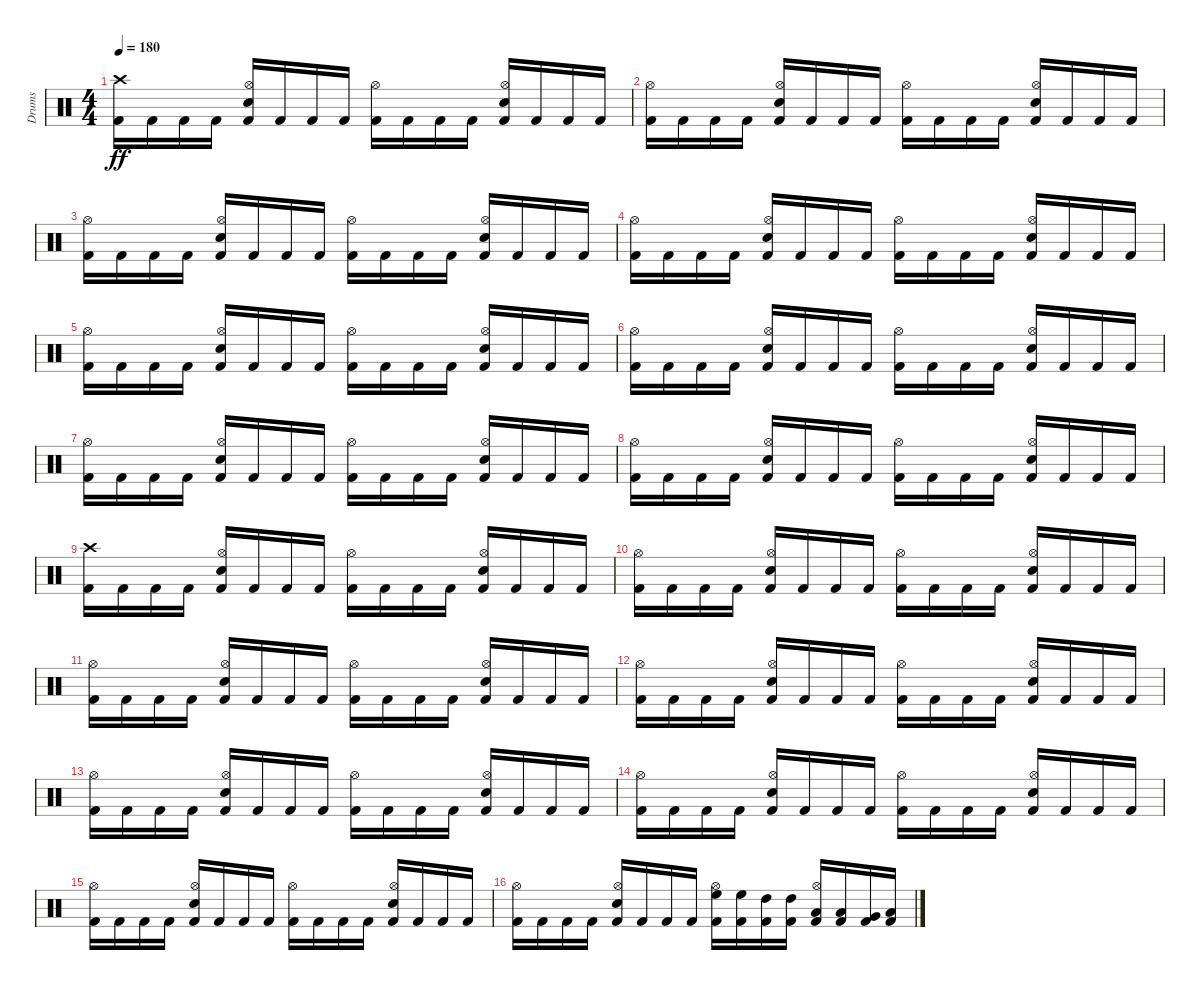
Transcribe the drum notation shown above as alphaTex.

\track ("Drums" "Drums") {instrument percussion}
\staff {score}
\articulation defaults
\ts (4 4)
\tempo 180
\clef neutral
\ks c
("Crash high (hit)" "Kick (hit) 2").16{dy ff} "Kick (hit) 2".16 "Kick (hit) 2".16 "Kick (hit) 2".16 ("Hi-Hat (open)" "Snare (hit) 2" "Kick (hit) 2").16 "Kick (hit) 2".16 "Kick (hit) 2".16 "Kick (hit) 2".16 ("Hi-Hat (open)" "Kick (hit) 2").16 "Kick (hit) 2".16 "Kick (hit) 2".16 "Kick (hit) 2".16 ("Hi-Hat (open)" "Snare (hit) 2" "Kick (hit) 2").16 "Kick (hit) 2".16 "Kick (hit) 2".16 "Kick (hit) 2".16 |
("Hi-Hat (open)" "Kick (hit) 2").16 "Kick (hit) 2".16 "Kick (hit) 2".16 "Kick (hit) 2".16 ("Hi-Hat (open)" "Snare (hit) 2" "Kick (hit) 2").16 "Kick (hit) 2".16 "Kick (hit) 2".16 "Kick (hit) 2".16 ("Hi-Hat (open)" "Kick (hit) 2").16 "Kick (hit) 2".16 "Kick (hit) 2".16 "Kick (hit) 2".16 ("Hi-Hat (open)" "Snare (hit) 2" "Kick (hit) 2").16 "Kick (hit) 2".16 "Kick (hit) 2".16 "Kick (hit) 2".16 |
("Hi-Hat (open)" "Kick (hit) 2").16 "Kick (hit) 2".16 "Kick (hit) 2".16 "Kick (hit) 2".16 ("Hi-Hat (open)" "Snare (hit) 2" "Kick (hit) 2").16 "Kick (hit) 2".16 "Kick (hit) 2".16 "Kick (hit) 2".16 ("Hi-Hat (open)" "Kick (hit) 2").16 "Kick (hit) 2".16 "Kick (hit) 2".16 "Kick (hit) 2".16 ("Hi-Hat (open)" "Snare (hit) 2" "Kick (hit) 2").16 "Kick (hit) 2".16 "Kick (hit) 2".16 "Kick (hit) 2".16 |
("Hi-Hat (open)" "Kick (hit) 2").16 "Kick (hit) 2".16 "Kick (hit) 2".16 "Kick (hit) 2".16 ("Hi-Hat (open)" "Snare (hit) 2" "Kick (hit) 2").16 "Kick (hit) 2".16 "Kick (hit) 2".16 "Kick (hit) 2".16 ("Hi-Hat (open)" "Kick (hit) 2").16 "Kick (hit) 2".16 "Kick (hit) 2".16 "Kick (hit) 2".16 ("Hi-Hat (open)" "Snare (hit) 2" "Kick (hit) 2").16 "Kick (hit) 2".16 "Kick (hit) 2".16 "Kick (hit) 2".16 |
("Hi-Hat (open)" "Kick (hit) 2").16 "Kick (hit) 2".16 "Kick (hit) 2".16 "Kick (hit) 2".16 ("Hi-Hat (open)" "Snare (hit) 2" "Kick (hit) 2").16 "Kick (hit) 2".16 "Kick (hit) 2".16 "Kick (hit) 2".16 ("Hi-Hat (open)" "Kick (hit) 2").16 "Kick (hit) 2".16 "Kick (hit) 2".16 "Kick (hit) 2".16 ("Hi-Hat (open)" "Snare (hit) 2" "Kick (hit) 2").16 "Kick (hit) 2".16 "Kick (hit) 2".16 "Kick (hit) 2".16 |
("Hi-Hat (open)" "Kick (hit) 2").16 "Kick (hit) 2".16 "Kick (hit) 2".16 "Kick (hit) 2".16 ("Hi-Hat (open)" "Snare (hit) 2" "Kick (hit) 2").16 "Kick (hit) 2".16 "Kick (hit) 2".16 "Kick (hit) 2".16 ("Hi-Hat (open)" "Kick (hit) 2").16 "Kick (hit) 2".16 "Kick (hit) 2".16 "Kick (hit) 2".16 ("Hi-Hat (open)" "Snare (hit) 2" "Kick (hit) 2").16 "Kick (hit) 2".16 "Kick (hit) 2".16 "Kick (hit) 2".16 |
("Hi-Hat (open)" "Kick (hit) 2").16 "Kick (hit) 2".16 "Kick (hit) 2".16 "Kick (hit) 2".16 ("Hi-Hat (open)" "Snare (hit) 2" "Kick (hit) 2").16 "Kick (hit) 2".16 "Kick (hit) 2".16 "Kick (hit) 2".16 ("Hi-Hat (open)" "Kick (hit) 2").16 "Kick (hit) 2".16 "Kick (hit) 2".16 "Kick (hit) 2".16 ("Hi-Hat (open)" "Snare (hit) 2" "Kick (hit) 2").16 "Kick (hit) 2".16 "Kick (hit) 2".16 "Kick (hit) 2".16 |
("Hi-Hat (open)" "Kick (hit) 2").16 "Kick (hit) 2".16 "Kick (hit) 2".16 "Kick (hit) 2".16 ("Hi-Hat (open)" "Snare (hit) 2" "Kick (hit) 2").16 "Kick (hit) 2".16 "Kick (hit) 2".16 "Kick (hit) 2".16 ("Hi-Hat (open)" "Kick (hit) 2").16 "Kick (hit) 2".16 "Kick (hit) 2".16 "Kick (hit) 2".16 ("Hi-Hat (open)" "Snare (hit) 2" "Kick (hit) 2").16 "Kick (hit) 2".16 "Kick (hit) 2".16 "Kick (hit) 2".16 |
("Crash high (hit)" "Kick (hit) 2").16 "Kick (hit) 2".16 "Kick (hit) 2".16 "Kick (hit) 2".16 ("Hi-Hat (open)" "Snare (hit) 2" "Kick (hit) 2").16 "Kick (hit) 2".16 "Kick (hit) 2".16 "Kick (hit) 2".16 ("Hi-Hat (open)" "Kick (hit) 2").16 "Kick (hit) 2".16 "Kick (hit) 2".16 "Kick (hit) 2".16 ("Hi-Hat (open)" "Snare (hit) 2" "Kick (hit) 2").16 "Kick (hit) 2".16 "Kick (hit) 2".16 "Kick (hit) 2".16 |
("Hi-Hat (open)" "Kick (hit) 2").16 "Kick (hit) 2".16 "Kick (hit) 2".16 "Kick (hit) 2".16 ("Hi-Hat (open)" "Snare (hit) 2" "Kick (hit) 2").16 "Kick (hit) 2".16 "Kick (hit) 2".16 "Kick (hit) 2".16 ("Hi-Hat (open)" "Kick (hit) 2").16 "Kick (hit) 2".16 "Kick (hit) 2".16 "Kick (hit) 2".16 ("Hi-Hat (open)" "Snare (hit) 2" "Kick (hit) 2").16 "Kick (hit) 2".16 "Kick (hit) 2".16 "Kick (hit) 2".16 |
("Hi-Hat (open)" "Kick (hit) 2").16 "Kick (hit) 2".16 "Kick (hit) 2".16 "Kick (hit) 2".16 ("Hi-Hat (open)" "Snare (hit) 2" "Kick (hit) 2").16 "Kick (hit) 2".16 "Kick (hit) 2".16 "Kick (hit) 2".16 ("Hi-Hat (open)" "Kick (hit) 2").16 "Kick (hit) 2".16 "Kick (hit) 2".16 "Kick (hit) 2".16 ("Hi-Hat (open)" "Snare (hit) 2" "Kick (hit) 2").16 "Kick (hit) 2".16 "Kick (hit) 2".16 "Kick (hit) 2".16 |
("Hi-Hat (open)" "Kick (hit) 2").16 "Kick (hit) 2".16 "Kick (hit) 2".16 "Kick (hit) 2".16 ("Hi-Hat (open)" "Snare (hit) 2" "Kick (hit) 2").16 "Kick (hit) 2".16 "Kick (hit) 2".16 "Kick (hit) 2".16 ("Hi-Hat (open)" "Kick (hit) 2").16 "Kick (hit) 2".16 "Kick (hit) 2".16 "Kick (hit) 2".16 ("Hi-Hat (open)" "Snare (hit) 2" "Kick (hit) 2").16 "Kick (hit) 2".16 "Kick (hit) 2".16 "Kick (hit) 2".16 |
("Hi-Hat (open)" "Kick (hit) 2").16 "Kick (hit) 2".16 "Kick (hit) 2".16 "Kick (hit) 2".16 ("Hi-Hat (open)" "Snare (hit) 2" "Kick (hit) 2").16 "Kick (hit) 2".16 "Kick (hit) 2".16 "Kick (hit) 2".16 ("Hi-Hat (open)" "Kick (hit) 2").16 "Kick (hit) 2".16 "Kick (hit) 2".16 "Kick (hit) 2".16 ("Hi-Hat (open)" "Snare (hit) 2" "Kick (hit) 2").16 "Kick (hit) 2".16 "Kick (hit) 2".16 "Kick (hit) 2".16 |
("Hi-Hat (open)" "Kick (hit) 2").16 "Kick (hit) 2".16 "Kick (hit) 2".16 "Kick (hit) 2".16 ("Hi-Hat (open)" "Snare (hit) 2" "Kick (hit) 2").16 "Kick (hit) 2".16 "Kick (hit) 2".16 "Kick (hit) 2".16 ("Hi-Hat (open)" "Kick (hit) 2").16 "Kick (hit) 2".16 "Kick (hit) 2".16 "Kick (hit) 2".16 ("Hi-Hat (open)" "Snare (hit) 2" "Kick (hit) 2").16 "Kick (hit) 2".16 "Kick (hit) 2".16 "Kick (hit) 2".16 |
("Hi-Hat (open)" "Kick (hit) 2").16 "Kick (hit) 2".16 "Kick (hit) 2".16 "Kick (hit) 2".16 ("Hi-Hat (open)" "Snare (hit) 2" "Kick (hit) 2").16 "Kick (hit) 2".16 "Kick (hit) 2".16 "Kick (hit) 2".16 ("Hi-Hat (open)" "Kick (hit) 2").16 "Kick (hit) 2".16 "Kick (hit) 2".16 "Kick (hit) 2".16 ("Hi-Hat (open)" "Snare (hit) 2" "Kick (hit) 2").16 "Kick (hit) 2".16 "Kick (hit) 2".16 "Kick (hit) 2".16 |
("Hi-Hat (open)" "Kick (hit) 2").16 "Kick (hit) 2".16 "Kick (hit) 2".16 "Kick (hit) 2".16 ("Hi-Hat (open)" "Snare (hit) 2" "Kick (hit) 2").16 "Kick (hit) 2".16 "Kick (hit) 2".16 "Kick (hit) 2".16 ("Hi-Hat (open)" "High Floor Tom (hit)" "Kick (hit) 2").16 ("High Floor Tom (hit)" "Kick (hit) 2").16 ("High Tom (hit)" "Kick (hit) 2").16 ("High Tom (hit)" "Kick (hit) 2").16 ("Hi-Hat (open)" "Low Tom (hit)" "Kick (hit) 2").16 ("Low Tom (hit)" "Kick (hit) 2").16 ("Very Low Tom (hit)" "Kick (hit) 2").16 ("Low Floor Tom (hit)" "Kick (hit) 2").16
